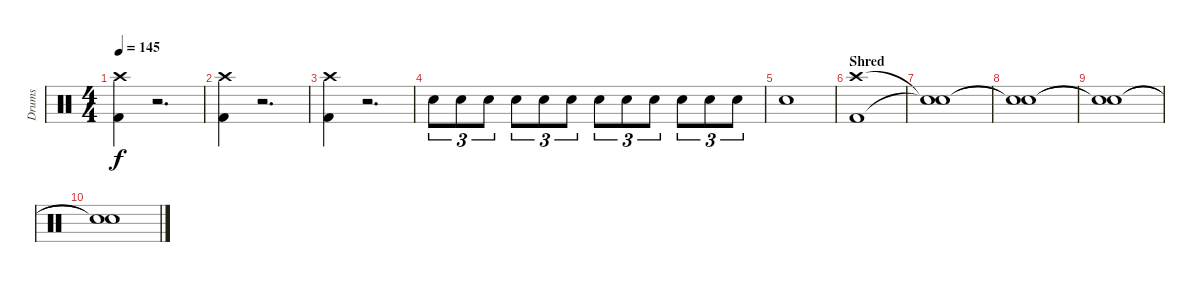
\track ("Drums" "Drums") {instrument percussion}
\staff {score}
\articulation defaults
\ts (4 4)
\tempo 145
\clef neutral
\ks c
("Crash high (hit)" "Kick (hit) 2").4{dy f} r.2{d} |
("Crash high (hit)" "Kick (hit) 2").4 r.2{d} |
("Crash high (hit)" "Kick (hit) 2").4 r.2{d} |
"Snare (hit) 2".8{tu (3 2)} "Snare (hit) 2".8{tu (3 2)} "Snare (hit) 2".8{tu (3 2)} "Snare (hit) 2".8{tu (3 2)} "Snare (hit) 2".8{tu (3 2)} "Snare (hit) 2".8{tu (3 2)} "Snare (hit) 2".8{tu (3 2)} "Snare (hit) 2".8{tu (3 2)} "Snare (hit) 2".8{tu (3 2)} "Snare (hit) 2".8{tu (3 2)} "Snare (hit) 2".8{tu (3 2)} "Snare (hit) 2".8{tu (3 2)} |
"Snare (hit) 2".1 |
\section ("" "Shred")
("Crash high (hit)" "Kick (hit) 2").1 |
("Snare (hit)"{t} "Snare (hit)"{t}).1 |
("Snare (hit)"{t} "Snare (hit)"{t}).1 |
("Snare (hit)"{t} "Snare (hit)"{t}).1 |
("Snare (hit)"{t} "Snare (hit)"{t}).1
